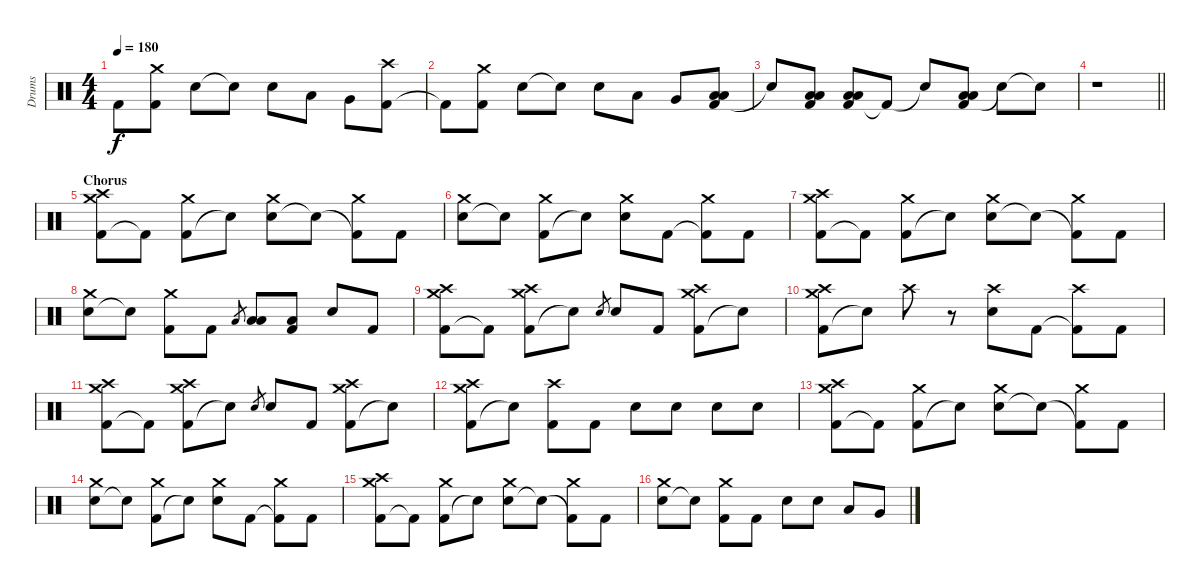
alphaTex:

\track ("Drums" "Drums") {instrument percussion}
\staff {score}
\articulation defaults
\ts (4 4)
\tempo 180
\clef neutral
\ks c "Kick (hit) 2"{t}.8{dy f}
("Kick (hit) 2" "Crash medium (hit)").8 "Electric Snare (hit)".8 "Snare (hit)"{t}.8 "Electric Snare (hit)".8 "Low Tom (hit)".8 "Very Low Tom (hit)".8 ("Kick (hit) 2" "Crash high (hit)").8 |
"Kick (hit) 2"{t}.8 ("Kick (hit) 2" "Crash medium (hit)").8 "Electric Snare (hit)".8 "Snare (hit)"{t}.8 "Electric Snare (hit)".8 "Low Tom (hit)".8 "Very Low Tom (hit)".8 ("Kick (hit) 2" "Low Tom (hit)" "Low Floor Tom (hit)").8 |
"Snare (hit)"{t}.8 ("Kick (hit) 2" "Low Tom (hit)" "Low Floor Tom (hit)").8 ("Kick (hit) 2" "Low Tom (hit)" "Low Floor Tom (hit)").8 "Kick (hit) 2"{t}.8 "Snare (hit)"{t}.8 ("Kick (hit) 2" "Low Tom (hit)" "Low Floor Tom (hit)").8 "Snare (hit)"{t}.8 "Snare (hit)"{t}.8 |
\barLineRight lightlight
r.1 |
\section ("" "Chorus")
("Kick (hit) 2" "Crash medium (hit)" "Crash high (hit)").8 "Kick (hit) 2"{t}.8 ("Kick (hit) 2" "Crash medium (hit)").8 "Snare (hit)"{t}.8 ("Electric Snare (hit)" "Crash medium (hit)").8 "Snare (hit)"{t}.8 ("Kick (hit) 2"{t} "Crash medium (hit)").8 "Kick (hit) 2".8 |
("Electric Snare (hit)" "Crash medium (hit)").8 "Snare (hit)"{t}.8 ("Kick (hit) 2" "Crash medium (hit)").8 "Snare (hit)"{t}.8 ("Electric Snare (hit)" "Crash medium (hit)").8 "Kick (hit) 2".8 ("Kick (hit) 2"{t} "Crash medium (hit)").8 "Kick (hit) 2".8 |
("Kick (hit) 2" "Crash medium (hit)" "Crash high (hit)").8 "Kick (hit) 2"{t}.8 ("Kick (hit) 2" "Crash medium (hit)").8 "Snare (hit)"{t}.8 ("Electric Snare (hit)" "Crash medium (hit)").8 "Snare (hit)"{t}.8 ("Kick (hit) 2"{t} "Crash medium (hit)").8 "Kick (hit) 2".8 |
("Electric Snare (hit)" "Crash medium (hit)").8 "Snare (hit)"{t}.8 ("Kick (hit) 2" "Crash medium (hit)").8 "Kick (hit) 2".8 "Low Tom (hit)".8{gr} ("Low Tom (hit)" "Low Floor Tom (hit)").8 ("Kick (hit) 2" "Low Floor Tom (hit)").8 "Electric Snare (hit)".8 "Kick (hit) 2".8 |
("Kick (hit) 2" "Crash medium (hit)" "Crash high (hit)").8 "Kick (hit) 2"{t}.8 ("Kick (hit) 2" "Crash medium (hit)" "Crash high (hit)").8 "Electric Snare (hit)"{t}.8 "Electric Snare (hit)".8{gr} "Electric Snare (hit)".8 "Kick (hit) 2".8 ("Kick (hit) 2" "Crash medium (hit)" "Crash high (hit)").8 "Snare (hit)"{t}.8 |
("Kick (hit) 2" "Crash medium (hit)" "Crash high (hit)").8 "Snare (hit)"{t}.8 "Crash high (hit)".8 r.8 ("Electric Snare (hit)" "Crash high (hit)").8 "Kick (hit) 2".8 ("Kick (hit) 2"{t} "Crash high (hit)").8 "Kick (hit) 2".8 |
("Kick (hit) 2" "Crash medium (hit)" "Crash high (hit)").8 "Kick (hit) 2"{t}.8 ("Kick (hit) 2" "Crash medium (hit)" "Crash high (hit)").8 "Electric Snare (hit)"{t}.8 "Electric Snare (hit)".8{gr} "Electric Snare (hit)".8 "Kick (hit) 2".8 ("Kick (hit) 2" "Crash medium (hit)" "Crash high (hit)").8 "Snare (hit)"{t}.8 |
("Kick (hit) 2" "Crash medium (hit)" "Crash high (hit)").8 "Snare (hit)"{t}.8 ("Kick (hit) 2" "Crash high (hit)").8 "Kick (hit) 2".8 "Electric Snare (hit)".8 "Electric Snare (hit)".8 "Electric Snare (hit)".8 "Electric Snare (hit)".8 |
("Kick (hit) 2" "Crash medium (hit)" "Crash high (hit)").8 "Kick (hit) 2"{t}.8 ("Kick (hit) 2" "Crash medium (hit)").8 "Snare (hit)"{t}.8 ("Electric Snare (hit)" "Crash medium (hit)").8 "Snare (hit)"{t}.8 ("Kick (hit) 2"{t} "Crash medium (hit)").8 "Kick (hit) 2".8 |
("Electric Snare (hit)" "Crash medium (hit)").8 "Snare (hit)"{t}.8 ("Kick (hit) 2" "Crash medium (hit)").8 "Snare (hit)"{t}.8 ("Electric Snare (hit)" "Crash medium (hit)").8 "Kick (hit) 2".8 ("Kick (hit) 2"{t} "Crash medium (hit)").8 "Kick (hit) 2".8 |
("Kick (hit) 2" "Crash medium (hit)" "Crash high (hit)").8 "Kick (hit) 2"{t}.8 ("Kick (hit) 2" "Crash medium (hit)").8 "Snare (hit)"{t}.8 ("Electric Snare (hit)" "Crash medium (hit)").8 "Snare (hit)"{t}.8 ("Kick (hit) 2"{t} "Crash medium (hit)").8 "Kick (hit) 2".8 |
("Electric Snare (hit)" "Crash medium (hit)").8 "Snare (hit)"{t}.8 ("Kick (hit) 2" "Crash medium (hit)").8 "Kick (hit) 2".8 "Electric Snare (hit)".8 "Electric Snare (hit)".8 "Low Tom (hit)".8 "Very Low Tom (hit)".8
